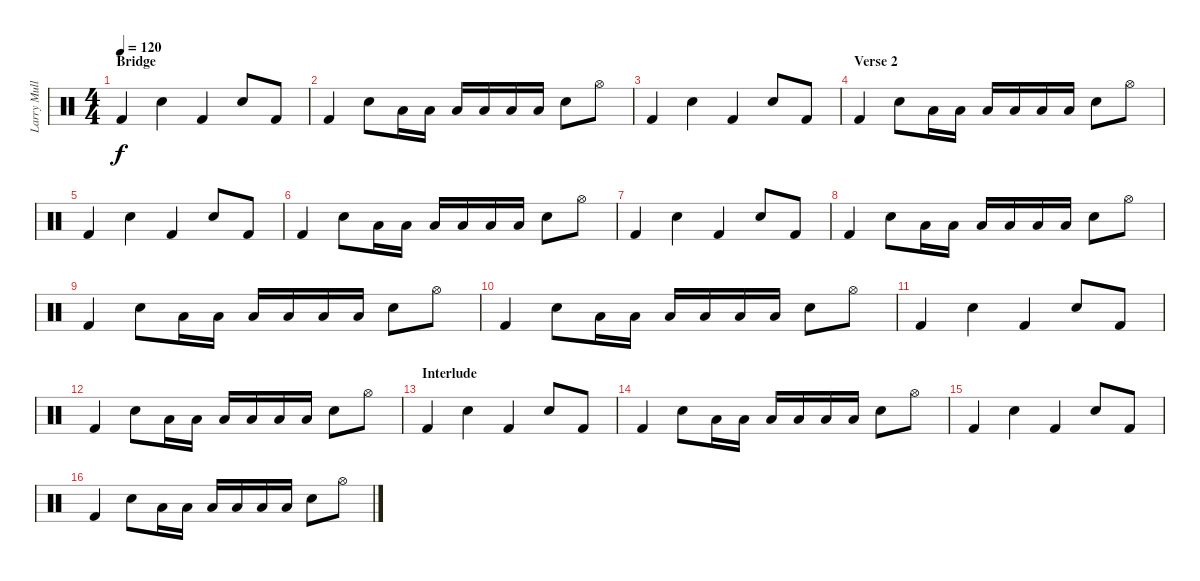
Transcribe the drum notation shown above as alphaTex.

\track ("Larry Mullen Jr" "Larry Mull") {instrument percussion}
\staff {score}
\articulation defaults
\ts (4 4)
\section ("" "Bridge")
\tempo 120
\clef neutral
\ks c "Kick (hit) 2".4{dy f} "Snare (hit) 2".4 "Kick (hit) 2".4 "Snare (hit) 2".8 "Kick (hit) 2".8
|
"Kick (hit) 2".4 "Snare (hit) 2".8 "Low Floor Tom (hit)".16 "Low Floor Tom (hit)".16 "Low Floor Tom (hit)".16 "Low Floor Tom (hit)".16 "Low Floor Tom (hit)".16 "Low Floor Tom (hit)".16 "Snare (hit) 2".8 "Hi-Hat (open)".8 |
"Kick (hit) 2".4 "Snare (hit) 2".4 "Kick (hit) 2".4 "Snare (hit) 2".8 "Kick (hit) 2".8 |
\section ("" "Verse 2")
"Kick (hit) 2".4 "Snare (hit) 2".8 "Low Floor Tom (hit)".16 "Low Floor Tom (hit)".16 "Low Floor Tom (hit)".16 "Low Floor Tom (hit)".16 "Low Floor Tom (hit)".16 "Low Floor Tom (hit)".16 "Snare (hit) 2".8 "Hi-Hat (open)".8 |
"Kick (hit) 2".4 "Snare (hit) 2".4 "Kick (hit) 2".4 "Snare (hit) 2".8 "Kick (hit) 2".8 |
"Kick (hit) 2".4 "Snare (hit) 2".8 "Low Floor Tom (hit)".16 "Low Floor Tom (hit)".16 "Low Floor Tom (hit)".16 "Low Floor Tom (hit)".16 "Low Floor Tom (hit)".16 "Low Floor Tom (hit)".16 "Snare (hit) 2".8 "Hi-Hat (open)".8 |
"Kick (hit) 2".4 "Snare (hit) 2".4 "Kick (hit) 2".4 "Snare (hit) 2".8 "Kick (hit) 2".8 |
"Kick (hit) 2".4 "Snare (hit) 2".8 "Low Floor Tom (hit)".16 "Low Floor Tom (hit)".16 "Low Floor Tom (hit)".16 "Low Floor Tom (hit)".16 "Low Floor Tom (hit)".16 "Low Floor Tom (hit)".16 "Snare (hit) 2".8 "Hi-Hat (open)".8 |
"Kick (hit) 2".4 "Snare (hit) 2".8 "Low Floor Tom (hit)".16 "Low Floor Tom (hit)".16 "Low Floor Tom (hit)".16 "Low Floor Tom (hit)".16 "Low Floor Tom (hit)".16 "Low Floor Tom (hit)".16 "Snare (hit) 2".8 "Hi-Hat (open)".8 |
"Kick (hit) 2".4 "Snare (hit) 2".8 "Low Floor Tom (hit)".16 "Low Floor Tom (hit)".16 "Low Floor Tom (hit)".16 "Low Floor Tom (hit)".16 "Low Floor Tom (hit)".16 "Low Floor Tom (hit)".16 "Snare (hit) 2".8 "Hi-Hat (open)".8 |
"Kick (hit) 2".4 "Snare (hit) 2".4 "Kick (hit) 2".4 "Snare (hit) 2".8 "Kick (hit) 2".8 |
"Kick (hit) 2".4 "Snare (hit) 2".8 "Low Floor Tom (hit)".16 "Low Floor Tom (hit)".16 "Low Floor Tom (hit)".16 "Low Floor Tom (hit)".16 "Low Floor Tom (hit)".16 "Low Floor Tom (hit)".16 "Snare (hit) 2".8 "Hi-Hat (open)".8 |
\section ("" "Interlude")
"Kick (hit) 2".4 "Snare (hit) 2".4 "Kick (hit) 2".4 "Snare (hit) 2".8 "Kick (hit) 2".8 |
"Kick (hit) 2".4 "Snare (hit) 2".8 "Low Floor Tom (hit)".16 "Low Floor Tom (hit)".16 "Low Floor Tom (hit)".16 "Low Floor Tom (hit)".16 "Low Floor Tom (hit)".16 "Low Floor Tom (hit)".16 "Snare (hit) 2".8 "Hi-Hat (open)".8 |
"Kick (hit) 2".4 "Snare (hit) 2".4 "Kick (hit) 2".4 "Snare (hit) 2".8 "Kick (hit) 2".8 |
"Kick (hit) 2".4 "Snare (hit) 2".8 "Low Floor Tom (hit)".16 "Low Floor Tom (hit)".16 "Low Floor Tom (hit)".16 "Low Floor Tom (hit)".16 "Low Floor Tom (hit)".16 "Low Floor Tom (hit)".16 "Snare (hit) 2".8 "Hi-Hat (open)".8
